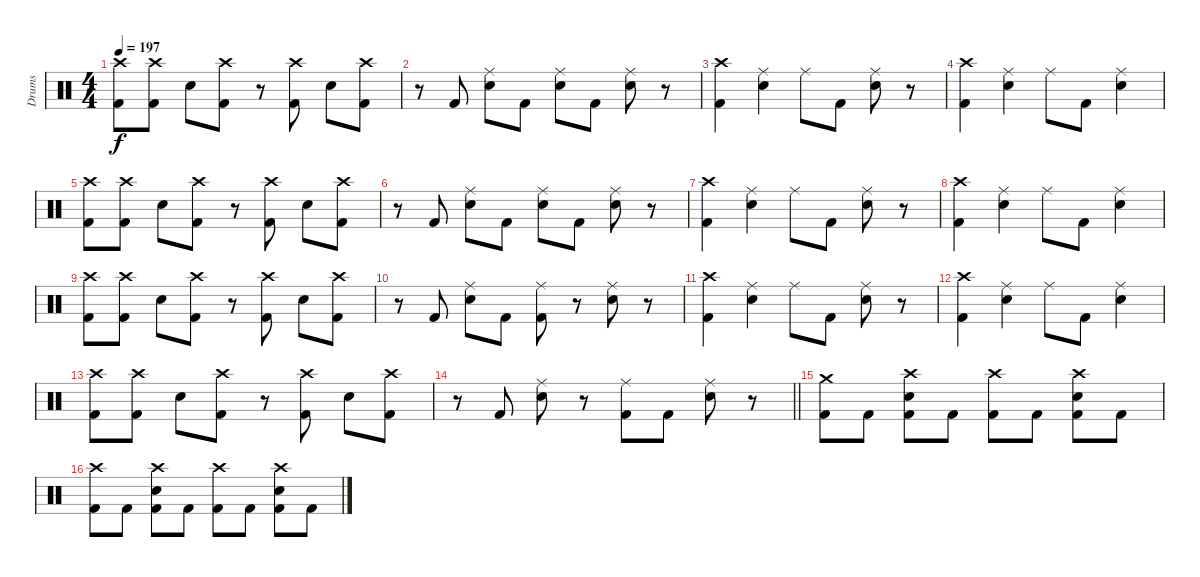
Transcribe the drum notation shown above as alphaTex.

\track ("Drums" "Drums") {instrument percussion}
\staff {score}
\articulation defaults
\ts (4 4)
\tempo 197
\clef neutral
\ks c
("Crash high (hit)" "Kick (hit) 2").8{dy f} ("Crash high (hit)" "Kick (hit) 2").8 "Electric Snare (hit)".8 ("Crash high (hit)" "Kick (hit) 2").8 r.8 ("Crash high (hit)" "Kick (hit) 2").8 "Electric Snare (hit)".8 ("Crash high (hit)" "Kick (hit) 2").8 |
r.8 "Kick (hit) 2".8 ("Ride (middle)" "Electric Snare (hit)").8 "Kick (hit) 2".8 ("Ride (middle)" "Electric Snare (hit)").8 "Kick (hit) 2".8 ("Ride (middle)" "Electric Snare (hit)").8 r.8 |
("Crash high (hit)" "Kick (hit) 2").4 ("Ride (middle)" "Electric Snare (hit)").4 "Ride (middle)".8 "Kick (hit) 2".8 ("Ride (middle)" "Electric Snare (hit)").8 r.8 |
("Crash high (hit)" "Kick (hit) 2").4 ("Ride (middle)" "Electric Snare (hit)").4 "Ride (middle)".8 "Kick (hit) 2".8 ("Ride (middle)" "Electric Snare (hit)").4 |
("Crash high (hit)" "Kick (hit) 2").8 ("Crash high (hit)" "Kick (hit) 2").8 "Electric Snare (hit)".8 ("Crash high (hit)" "Kick (hit) 2").8 r.8 ("Crash high (hit)" "Kick (hit) 2").8 "Electric Snare (hit)".8 ("Crash high (hit)" "Kick (hit) 2").8 |
r.8 "Kick (hit) 2".8 ("Ride (middle)" "Electric Snare (hit)").8 "Kick (hit) 2".8 ("Ride (middle)" "Electric Snare (hit)").8 "Kick (hit) 2".8 ("Ride (middle)" "Electric Snare (hit)").8 r.8 |
("Crash high (hit)" "Kick (hit) 2").4 ("Ride (middle)" "Electric Snare (hit)").4 "Ride (middle)".8 "Kick (hit) 2".8 ("Ride (middle)" "Electric Snare (hit)").8 r.8 |
("Crash high (hit)" "Kick (hit) 2").4 ("Ride (middle)" "Electric Snare (hit)").4 "Ride (middle)".8 "Kick (hit) 2".8 ("Ride (middle)" "Electric Snare (hit)").4 |
("Crash high (hit)" "Kick (hit) 2").8 ("Crash high (hit)" "Kick (hit) 2").8 "Electric Snare (hit)".8 ("Crash high (hit)" "Kick (hit) 2").8 r.8 ("Crash high (hit)" "Kick (hit) 2").8 "Electric Snare (hit)".8 ("Crash high (hit)" "Kick (hit) 2").8 |
r.8 "Kick (hit) 2".8 ("Ride (middle)" "Electric Snare (hit)").8 "Kick (hit) 2".8 ("Ride (middle)" "Kick (hit) 2").8 r.8 ("Ride (middle)" "Electric Snare (hit)").8 r.8 |
("Crash high (hit)" "Kick (hit) 2").4 ("Ride (middle)" "Electric Snare (hit)").4 "Ride (middle)".8 "Kick (hit) 2".8 ("Ride (middle)" "Electric Snare (hit)").8 r.8 |
("Crash high (hit)" "Kick (hit) 2").4 ("Ride (middle)" "Electric Snare (hit)").4 "Ride (middle)".8 "Kick (hit) 2".8 ("Ride (middle)" "Electric Snare (hit)").4 |
("Crash high (hit)" "Kick (hit) 2").8 ("Crash high (hit)" "Kick (hit) 2").8 "Electric Snare (hit)".8 ("Crash high (hit)" "Kick (hit) 2").8 r.8 ("Crash high (hit)" "Kick (hit) 2").8 "Electric Snare (hit)".8 ("Crash high (hit)" "Kick (hit) 2").8 |
\barLineRight lightlight
r.8 "Kick (hit) 2".8 ("Ride (middle)" "Electric Snare (hit)").8 r.8 ("Ride (middle)" "Kick (hit) 2").8 "Kick (hit) 2".8 ("Ride (middle)" "Electric Snare (hit)").8 r.8 |
\section ("" "")
("Crash medium (hit)" "Kick (hit) 2").8 "Kick (hit) 2".8 ("Crash high (hit)" "Electric Snare (hit)" "Kick (hit) 2").8 "Kick (hit) 2".8 ("Crash high (hit)" "Kick (hit) 2").8 "Kick (hit) 2".8 ("Crash high (hit)" "Electric Snare (hit)" "Kick (hit) 2").8 "Kick (hit) 2".8 |
("Crash high (hit)" "Kick (hit) 2").8 "Kick (hit) 2".8 ("Crash high (hit)" "Electric Snare (hit)" "Kick (hit) 2").8 "Kick (hit) 2".8 ("Crash high (hit)" "Kick (hit) 2").8 "Kick (hit) 2".8 ("Crash high (hit)" "Electric Snare (hit)" "Kick (hit) 2").8 "Kick (hit) 2".8
